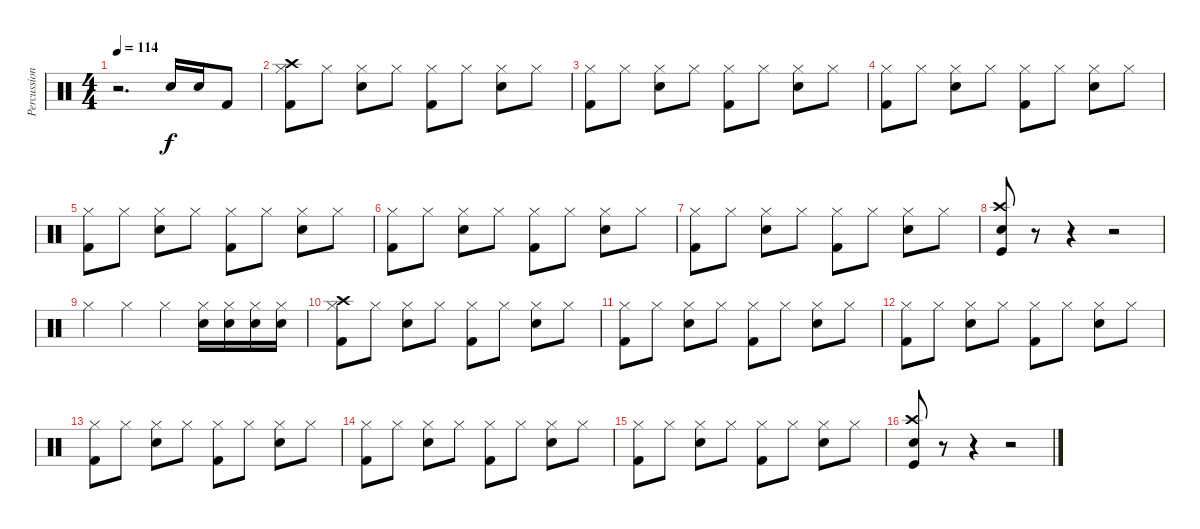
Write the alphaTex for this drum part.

\track ("Percussion" "Percussion") {instrument percussion}
\staff {score}
\articulation defaults
\ts (4 4)
\tempo 114
\clef neutral
\ks c
r.2{d dy f} "Snare (hit) 2".16 "Snare (hit) 2".16 "Kick (hit) 2".8 |
("Crash high (hit)" "Hi-Hat (closed)" "Kick (hit) 2").8 "Hi-Hat (closed)".8 ("Hi-Hat (closed)" "Snare (hit) 2").8 "Hi-Hat (closed)".8 ("Hi-Hat (closed)" "Kick (hit) 2").8 "Hi-Hat (closed)".8 ("Hi-Hat (closed)" "Snare (hit) 2").8 "Hi-Hat (closed)".8 |
("Hi-Hat (closed)" "Kick (hit) 2").8 "Hi-Hat (closed)".8 ("Hi-Hat (closed)" "Snare (hit) 2").8 "Hi-Hat (closed)".8 ("Hi-Hat (closed)" "Kick (hit) 2").8 "Hi-Hat (closed)".8 ("Hi-Hat (closed)" "Snare (hit) 2").8 "Hi-Hat (closed)".8 |
("Hi-Hat (closed)" "Kick (hit) 2").8 "Hi-Hat (closed)".8 ("Hi-Hat (closed)" "Snare (hit) 2").8 "Hi-Hat (closed)".8 ("Hi-Hat (closed)" "Kick (hit) 2").8 "Hi-Hat (closed)".8 ("Hi-Hat (closed)" "Snare (hit) 2").8 "Hi-Hat (closed)".8 |
("Hi-Hat (closed)" "Kick (hit) 2").8 "Hi-Hat (closed)".8 ("Hi-Hat (closed)" "Snare (hit) 2").8 "Hi-Hat (closed)".8 ("Hi-Hat (closed)" "Kick (hit) 2").8 "Hi-Hat (closed)".8 ("Hi-Hat (closed)" "Snare (hit) 2").8 "Hi-Hat (closed)".8 |
("Hi-Hat (closed)" "Kick (hit) 2").8 "Hi-Hat (closed)".8 ("Hi-Hat (closed)" "Snare (hit) 2").8 "Hi-Hat (closed)".8 ("Hi-Hat (closed)" "Kick (hit) 2").8 "Hi-Hat (closed)".8 ("Hi-Hat (closed)" "Snare (hit) 2").8 "Hi-Hat (closed)".8 |
("Hi-Hat (closed)" "Kick (hit) 2").8 "Hi-Hat (closed)".8 ("Hi-Hat (closed)" "Snare (hit) 2").8 "Hi-Hat (closed)".8 ("Hi-Hat (closed)" "Kick (hit) 2").8 "Hi-Hat (closed)".8 ("Hi-Hat (closed)" "Snare (hit) 2").8 "Hi-Hat (closed)".8 |
("Crash high (hit)" "Snare (hit) 2" "Kick (hit)").8 r.8 r.4 r.2 |
"Hi-Hat (closed)".4 "Hi-Hat (closed)".4 "Hi-Hat (closed)".4 ("Hi-Hat (closed)" "Snare (hit) 2").16 ("Hi-Hat (closed)" "Snare (hit) 2").16 ("Hi-Hat (closed)" "Snare (hit) 2").16 ("Hi-Hat (closed)" "Snare (hit) 2").16 |
("Crash high (hit)" "Hi-Hat (closed)" "Kick (hit) 2").8 "Hi-Hat (closed)".8 ("Hi-Hat (closed)" "Snare (hit) 2").8 "Hi-Hat (closed)".8 ("Hi-Hat (closed)" "Kick (hit) 2").8 "Hi-Hat (closed)".8 ("Hi-Hat (closed)" "Snare (hit) 2").8 "Hi-Hat (closed)".8 |
("Hi-Hat (closed)" "Kick (hit) 2").8 "Hi-Hat (closed)".8 ("Hi-Hat (closed)" "Snare (hit) 2").8 "Hi-Hat (closed)".8 ("Hi-Hat (closed)" "Kick (hit) 2").8 "Hi-Hat (closed)".8 ("Hi-Hat (closed)" "Snare (hit) 2").8 "Hi-Hat (closed)".8 |
("Hi-Hat (closed)" "Kick (hit) 2").8 "Hi-Hat (closed)".8 ("Hi-Hat (closed)" "Snare (hit) 2").8 "Hi-Hat (closed)".8 ("Hi-Hat (closed)" "Kick (hit) 2").8 "Hi-Hat (closed)".8 ("Hi-Hat (closed)" "Snare (hit) 2").8 "Hi-Hat (closed)".8 |
("Hi-Hat (closed)" "Kick (hit) 2").8 "Hi-Hat (closed)".8 ("Hi-Hat (closed)" "Snare (hit) 2").8 "Hi-Hat (closed)".8 ("Hi-Hat (closed)" "Kick (hit) 2").8 "Hi-Hat (closed)".8 ("Hi-Hat (closed)" "Snare (hit) 2").8 "Hi-Hat (closed)".8 |
("Hi-Hat (closed)" "Kick (hit) 2").8 "Hi-Hat (closed)".8 ("Hi-Hat (closed)" "Snare (hit) 2").8 "Hi-Hat (closed)".8 ("Hi-Hat (closed)" "Kick (hit) 2").8 "Hi-Hat (closed)".8 ("Hi-Hat (closed)" "Snare (hit) 2").8 "Hi-Hat (closed)".8 |
("Hi-Hat (closed)" "Kick (hit) 2").8 "Hi-Hat (closed)".8 ("Hi-Hat (closed)" "Snare (hit) 2").8 "Hi-Hat (closed)".8 ("Hi-Hat (closed)" "Kick (hit) 2").8 "Hi-Hat (closed)".8 ("Hi-Hat (closed)" "Snare (hit) 2").8 "Hi-Hat (closed)".8 |
("Crash high (hit)" "Snare (hit) 2" "Kick (hit)").8 r.8 r.4 r.2
